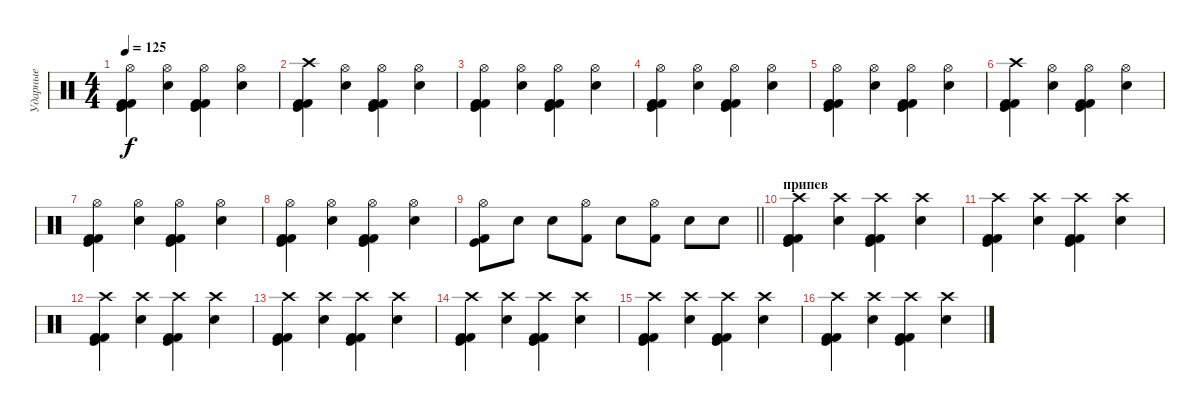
\track ("Ударные" "Ударные") {instrument percussion}
\staff {score}
\articulation defaults
\ts (4 4)
\tempo 125
\clef neutral
\ks c
("Hi-Hat (open)" "Kick (hit) 2" "Kick (hit) 2" "Kick (hit)").4{dy f} ("Hi-Hat (open)" "Electric Snare (hit)").4 ("Hi-Hat (open)" "Kick (hit) 2" "Kick (hit) 2" "Kick (hit)").4 ("Hi-Hat (open)" "Electric Snare (hit)").4 |
("Crash high (hit)" "Kick (hit)" "Kick (hit) 2" "Kick (hit) 2").4 ("Hi-Hat (open)" "Electric Snare (hit)").4 ("Hi-Hat (open)" "Kick (hit)" "Kick (hit) 2" "Kick (hit) 2").4 ("Hi-Hat (open)" "Electric Snare (hit)").4 |
("Hi-Hat (open)" "Kick (hit) 2" "Kick (hit) 2" "Kick (hit)").4 ("Hi-Hat (open)" "Electric Snare (hit)").4 ("Hi-Hat (open)" "Kick (hit) 2" "Kick (hit) 2" "Kick (hit)").4 ("Hi-Hat (open)" "Electric Snare (hit)").4 |
("Hi-Hat (open)" "Kick (hit) 2" "Kick (hit) 2" "Kick (hit)").4 ("Hi-Hat (open)" "Electric Snare (hit)").4 ("Hi-Hat (open)" "Kick (hit) 2" "Kick (hit) 2" "Kick (hit)").4 ("Hi-Hat (open)" "Electric Snare (hit)").4 |
("Hi-Hat (open)" "Kick (hit) 2" "Kick (hit) 2" "Kick (hit)").4 ("Hi-Hat (open)" "Electric Snare (hit)").4 ("Hi-Hat (open)" "Kick (hit) 2" "Kick (hit) 2" "Kick (hit)").4 ("Hi-Hat (open)" "Electric Snare (hit)").4 |
("Crash high (hit)" "Kick (hit)" "Kick (hit) 2" "Kick (hit) 2").4 ("Hi-Hat (open)" "Electric Snare (hit)").4 ("Hi-Hat (open)" "Kick (hit)" "Kick (hit) 2" "Kick (hit) 2").4 ("Hi-Hat (open)" "Electric Snare (hit)").4 |
("Hi-Hat (open)" "Kick (hit) 2" "Kick (hit) 2" "Kick (hit)").4 ("Hi-Hat (open)" "Electric Snare (hit)").4 ("Hi-Hat (open)" "Kick (hit) 2" "Kick (hit) 2" "Kick (hit)").4 ("Hi-Hat (open)" "Electric Snare (hit)").4 |
("Hi-Hat (open)" "Kick (hit) 2" "Kick (hit) 2" "Kick (hit)").4 ("Hi-Hat (open)" "Electric Snare (hit)").4 ("Hi-Hat (open)" "Kick (hit) 2" "Kick (hit) 2" "Kick (hit)").4 ("Hi-Hat (open)" "Electric Snare (hit)").4 |
\barLineRight lightlight
("Hi-Hat (open)" "Kick (hit) 2" "Kick (hit)").8 "Electric Snare (hit)".8 "Electric Snare (hit)".8 ("Hi-Hat (open)" "Kick (hit) 2").8 "Electric Snare (hit)".8 ("Hi-Hat (open)" "Kick (hit) 2").8 "Electric Snare (hit)".8 "Electric Snare (hit)".8 |
\section ("" "припев")
("Crash high (hit)" "Kick (hit)" "Kick (hit) 2" "Kick (hit) 2").4 ("Crash high (hit)" "Electric Snare (hit)").4 ("Crash high (hit)" "Kick (hit)" "Kick (hit) 2" "Kick (hit) 2").4 ("Crash high (hit)" "Electric Snare (hit)").4 |
("Crash high (hit)" "Kick (hit) 2" "Kick (hit) 2" "Kick (hit)").4 ("Crash high (hit)" "Electric Snare (hit)").4 ("Crash high (hit)" "Kick (hit) 2" "Kick (hit) 2" "Kick (hit)").4 ("Crash high (hit)" "Electric Snare (hit)").4 |
("Crash high (hit)" "Kick (hit) 2" "Kick (hit) 2" "Kick (hit)").4 ("Crash high (hit)" "Electric Snare (hit)").4 ("Crash high (hit)" "Kick (hit) 2" "Kick (hit) 2" "Kick (hit)").4 ("Crash high (hit)" "Electric Snare (hit)").4 |
("Crash high (hit)" "Kick (hit) 2" "Kick (hit) 2" "Kick (hit)").4 ("Crash high (hit)" "Electric Snare (hit)").4 ("Crash high (hit)" "Kick (hit) 2" "Kick (hit) 2" "Kick (hit)").4 ("Crash high (hit)" "Electric Snare (hit)").4 |
("Crash high (hit)" "Kick (hit)" "Kick (hit) 2" "Kick (hit) 2").4 ("Crash high (hit)" "Electric Snare (hit)").4 ("Crash high (hit)" "Kick (hit)" "Kick (hit) 2" "Kick (hit) 2").4 ("Crash high (hit)" "Electric Snare (hit)").4 |
("Crash high (hit)" "Kick (hit) 2" "Kick (hit) 2" "Kick (hit)").4 ("Crash high (hit)" "Electric Snare (hit)").4 ("Crash high (hit)" "Kick (hit) 2" "Kick (hit) 2" "Kick (hit)").4 ("Crash high (hit)" "Electric Snare (hit)").4 |
("Crash high (hit)" "Kick (hit) 2" "Kick (hit) 2" "Kick (hit)").4 ("Crash high (hit)" "Electric Snare (hit)").4 ("Crash high (hit)" "Kick (hit) 2" "Kick (hit) 2" "Kick (hit)").4 ("Crash high (hit)" "Electric Snare (hit)").4
